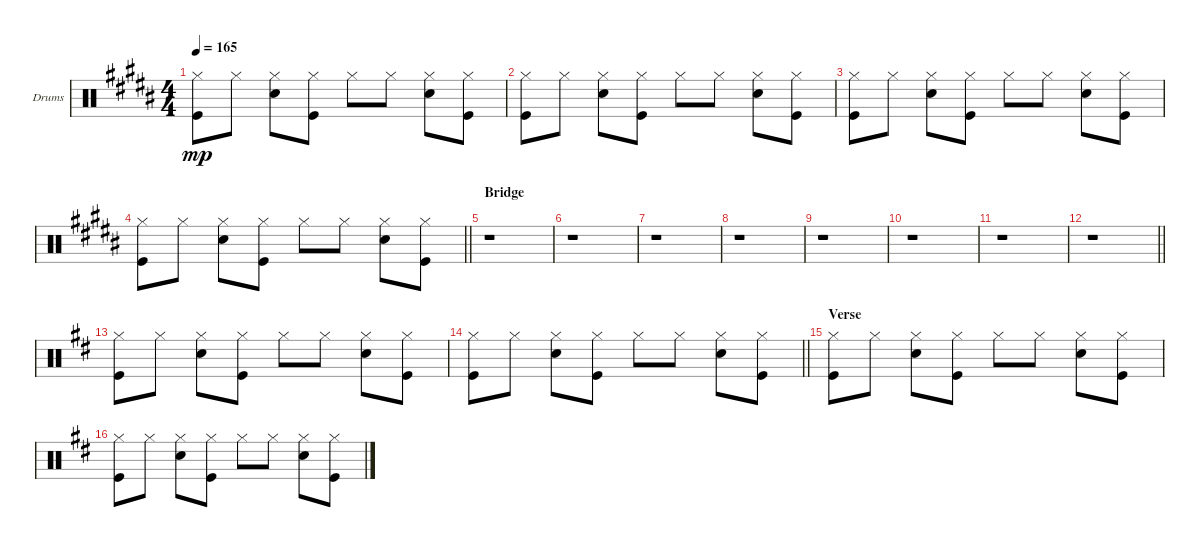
\defaultSystemsLayout 4
\bracketExtendMode groupsimilarinstruments
\firstSystemTrackNameOrientation horizontal
\otherSystemsTrackNameOrientation horizontal
\track ("Drumkit" "Drums") {instrument percussion}
\staff {score}
\articulation defaults
\ts (4 4)
\tempo 165
\clef neutral
\scale
0.333333
\ks b
("Hi-Hat (closed)" "Kick (hit)").8{dy mp} "Hi-Hat (closed)".8 ("Hi-Hat (closed)" "Snare (hit) 2").8 ("Hi-Hat (closed)" "Kick (hit)").8 "Hi-Hat (closed)".8 "Hi-Hat (closed)".8 ("Hi-Hat (closed)" "Snare (hit) 2").8 ("Hi-Hat (closed)" "Kick (hit)").8 |
\scale
0.333333 ("Hi-Hat (closed)" "Kick (hit)").8 "Hi-Hat (closed)".8 ("Hi-Hat (closed)" "Snare (hit) 2").8 ("Hi-Hat (closed)" "Kick (hit)").8 "Hi-Hat (closed)".8 "Hi-Hat (closed)".8 ("Hi-Hat (closed)" "Snare (hit) 2").8 ("Hi-Hat (closed)" "Kick (hit)").8 |
\scale
0.333333 ("Hi-Hat (closed)" "Kick (hit)").8 "Hi-Hat (closed)".8 ("Hi-Hat (closed)" "Snare (hit) 2").8 ("Hi-Hat (closed)" "Kick (hit)").8 "Hi-Hat (closed)".8 "Hi-Hat (closed)".8 ("Hi-Hat (closed)" "Snare (hit) 2").8 ("Hi-Hat (closed)" "Kick (hit)").8 |
\scale
0.333333
\barLineRight lightlight
("Hi-Hat (closed)" "Kick (hit)").8 "Hi-Hat (closed)".8 ("Hi-Hat (closed)" "Snare (hit) 2").8 ("Hi-Hat (closed)" "Kick (hit)").8 "Hi-Hat (closed)".8 "Hi-Hat (closed)".8 ("Hi-Hat (closed)" "Snare (hit) 2").8 ("Hi-Hat (closed)" "Kick (hit)").8 |
\section ("" "Bridge")
\scale
0.333333 r.1 |
\scale
0.333333 r.1 |
\scale
0.333333 r.1 |
\scale
0.333333 r.1 |
\scale
0.333333 r.1 |
\scale
0.333333 r.1 |
\scale
0.333333 r.1 |
\scale
0.244635
\barLineRight lightlight
r.1 |
\scale
0.51073
\ks d
("Hi-Hat (closed)" "Kick (hit)").8 "Hi-Hat (closed)".8 ("Hi-Hat (closed)" "Snare (hit) 2").8 ("Hi-Hat (closed)" "Kick (hit)").8 "Hi-Hat (closed)".8 "Hi-Hat (closed)".8 ("Hi-Hat (closed)" "Snare (hit) 2").8 ("Hi-Hat (closed)" "Kick (hit)").8 |
\scale
0.244635
\barLineRight lightlight
("Hi-Hat (closed)" "Kick (hit)").8 "Hi-Hat (closed)".8 ("Hi-Hat (closed)" "Snare (hit) 2").8 ("Hi-Hat (closed)" "Kick (hit)").8 "Hi-Hat (closed)".8 "Hi-Hat (closed)".8 ("Hi-Hat (closed)" "Snare (hit) 2").8 ("Hi-Hat (closed)" "Kick (hit)").8 |
\section ("" "Verse")
\scale
0.333333 ("Hi-Hat (closed)" "Kick (hit)").8 "Hi-Hat (closed)".8 ("Hi-Hat (closed)" "Snare (hit) 2").8 ("Hi-Hat (closed)" "Kick (hit)").8 "Hi-Hat (closed)".8 "Hi-Hat (closed)".8 ("Hi-Hat (closed)" "Snare (hit) 2").8 ("Hi-Hat (closed)" "Kick (hit)").8 |
\scale
0.333333 ("Hi-Hat (closed)" "Kick (hit)").8 "Hi-Hat (closed)".8 ("Hi-Hat (closed)" "Snare (hit) 2").8 ("Hi-Hat (closed)" "Kick (hit)").8 "Hi-Hat (closed)".8 "Hi-Hat (closed)".8 ("Hi-Hat (closed)" "Snare (hit) 2").8 ("Hi-Hat (closed)" "Kick (hit)").8
